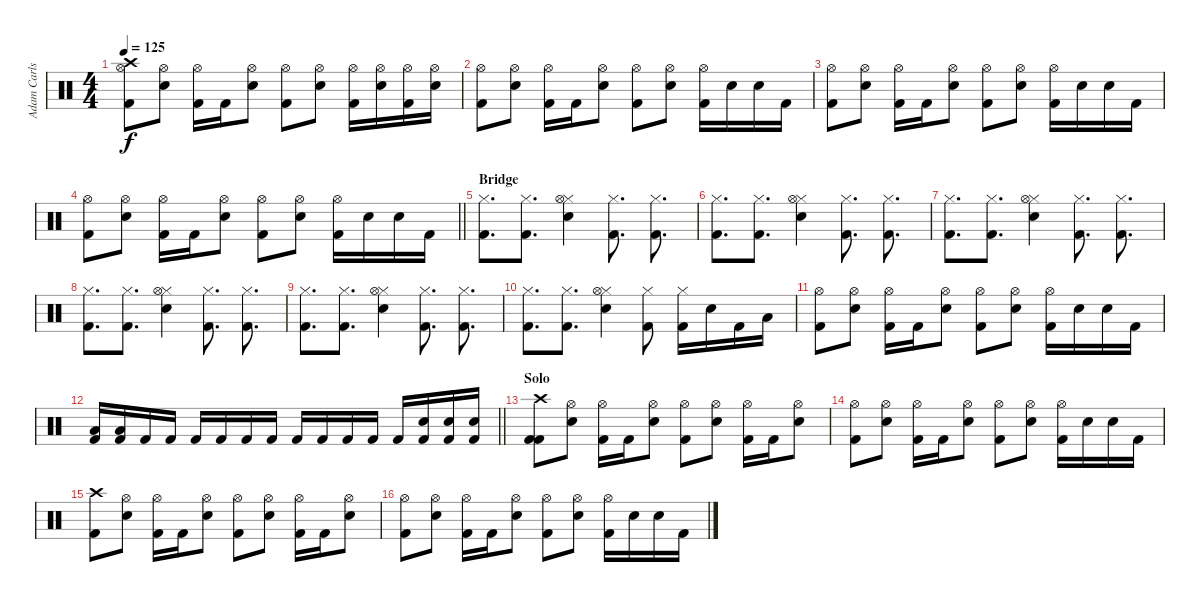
\track ("Adam Carlson" "Adam Carls") {instrument percussion}
\staff {score}
\articulation defaults
\ts (4 4)
\tempo 125
\clef neutral
\ks c
("Crash high (hit)" "Hi-Hat (open)" "Kick (hit) 2").8{dy f} ("Hi-Hat (open)" "Electric Snare (hit)").8 ("Hi-Hat (open)" "Kick (hit) 2").16 "Kick (hit) 2".16 ("Hi-Hat (open)" "Electric Snare (hit)").8 ("Hi-Hat (open)" "Kick (hit) 2").8 ("Hi-Hat (open)" "Electric Snare (hit)").8 ("Hi-Hat (open)" "Kick (hit) 2").16 ("Hi-Hat (open)" "Electric Snare (hit)").16 ("Hi-Hat (open)" "Kick (hit) 2").16 ("Electric Snare (hit)" "Hi-Hat (open)").16 |
("Hi-Hat (open)" "Kick (hit) 2").8 ("Hi-Hat (open)" "Electric Snare (hit)").8 ("Hi-Hat (open)" "Kick (hit) 2").16 "Kick (hit) 2".16 ("Hi-Hat (open)" "Electric Snare (hit)").8 ("Hi-Hat (open)" "Kick (hit) 2").8 ("Hi-Hat (open)" "Electric Snare (hit)").8 ("Hi-Hat (open)" "Kick (hit) 2").16 "Electric Snare (hit)".16 "Electric Snare (hit)".16 "Kick (hit) 2".16 |
("Hi-Hat (open)" "Kick (hit) 2").8 ("Hi-Hat (open)" "Electric Snare (hit)").8 ("Hi-Hat (open)" "Kick (hit) 2").16 "Kick (hit) 2".16 ("Hi-Hat (open)" "Electric Snare (hit)").8 ("Hi-Hat (open)" "Kick (hit) 2").8 ("Hi-Hat (open)" "Electric Snare (hit)").8 ("Hi-Hat (open)" "Kick (hit) 2").16 "Electric Snare (hit)".16 "Electric Snare (hit)".16 "Kick (hit) 2".16 |
\barLineRight lightlight
("Hi-Hat (open)" "Kick (hit) 2").8 ("Hi-Hat (open)" "Electric Snare (hit)").8 ("Hi-Hat (open)" "Kick (hit) 2").16 "Kick (hit) 2".16 ("Hi-Hat (open)" "Electric Snare (hit)").8 ("Hi-Hat (open)" "Kick (hit) 2").8 ("Hi-Hat (open)" "Electric Snare (hit)").8 ("Hi-Hat (open)" "Kick (hit) 2").16 "Electric Snare (hit)".16 "Electric Snare (hit)".16 "Kick (hit) 2".16 |
\section ("" "Bridge")
("Hi-Hat (closed)" "Kick (hit) 2").8{d} ("Hi-Hat (closed)" "Kick (hit) 2").8{d} ("Hi-Hat (closed)" "Hi-Hat (open)" "Electric Snare (hit)").4 ("Hi-Hat (closed)" "Kick (hit) 2").8{d} ("Hi-Hat (closed)" "Kick (hit) 2").8{d} |
("Hi-Hat (closed)" "Kick (hit) 2").8{d} ("Hi-Hat (closed)" "Kick (hit) 2").8{d} ("Hi-Hat (closed)" "Hi-Hat (open)" "Electric Snare (hit)").4 ("Hi-Hat (closed)" "Kick (hit) 2").8{d} ("Hi-Hat (closed)" "Kick (hit) 2").8{d} |
("Hi-Hat (closed)" "Kick (hit) 2").8{d} ("Hi-Hat (closed)" "Kick (hit) 2").8{d} ("Hi-Hat (closed)" "Hi-Hat (open)" "Electric Snare (hit)").4 ("Hi-Hat (closed)" "Kick (hit) 2").8{d} ("Hi-Hat (closed)" "Kick (hit) 2").8{d} |
("Hi-Hat (closed)" "Kick (hit) 2").8{d} ("Hi-Hat (closed)" "Kick (hit) 2").8{d} ("Hi-Hat (closed)" "Hi-Hat (open)" "Electric Snare (hit)").4 ("Hi-Hat (closed)" "Kick (hit) 2").8{d} ("Hi-Hat (closed)" "Kick (hit) 2").8{d} |
("Hi-Hat (closed)" "Kick (hit) 2").8{d} ("Hi-Hat (closed)" "Kick (hit) 2").8{d} ("Hi-Hat (closed)" "Hi-Hat (open)" "Electric Snare (hit)").4 ("Hi-Hat (closed)" "Kick (hit) 2").8{d} ("Hi-Hat (closed)" "Kick (hit) 2").8{d} |
("Hi-Hat (closed)" "Kick (hit) 2").8{d} ("Hi-Hat (closed)" "Kick (hit) 2").8{d} ("Hi-Hat (closed)" "Hi-Hat (open)" "Electric Snare (hit)").4 ("Hi-Hat (closed)" "Kick (hit) 2").8 ("Hi-Hat (closed)" "Kick (hit) 2").16 "Electric Snare (hit)".16 "Kick (hit) 2".16 "Low Floor Tom (hit)".16 |
("Hi-Hat (open)" "Kick (hit) 2").8 ("Hi-Hat (open)" "Electric Snare (hit)").8 ("Hi-Hat (open)" "Kick (hit) 2").16 "Kick (hit) 2".16 ("Hi-Hat (open)" "Electric Snare (hit)").8 ("Hi-Hat (open)" "Kick (hit) 2").8 ("Hi-Hat (open)" "Electric Snare (hit)").8 ("Hi-Hat (open)" "Kick (hit) 2").16 "Electric Snare (hit)".16 "Electric Snare (hit)".16 "Kick (hit) 2".16 |
\barLineRight lightlight
("Low Floor Tom (hit)" "Kick (hit) 2").16 ("Low Floor Tom (hit)" "Kick (hit) 2").16 "Kick (hit) 2".16 "Kick (hit) 2".16 "Kick (hit) 2".16 "Kick (hit) 2".16 "Kick (hit) 2".16 "Kick (hit) 2".16 "Kick (hit) 2".16 "Kick (hit) 2".16 "Kick (hit) 2".16 "Kick (hit) 2".16 "Kick (hit) 2".16 ("Electric Snare (hit)" "Kick (hit) 2").16 ("Electric Snare (hit)" "Kick (hit) 2").16 ("Electric Snare (hit)" "Kick (hit) 2").16 |
\section ("" "Solo")
("Crash high (hit)" "Kick (hit) 2" "Kick (hit) 2").8 ("Hi-Hat (open)" "Electric Snare (hit)").8 ("Hi-Hat (open)" "Kick (hit) 2").16 "Kick (hit) 2".16 ("Hi-Hat (open)" "Electric Snare (hit)").8 ("Hi-Hat (open)" "Kick (hit) 2").8 ("Hi-Hat (open)" "Electric Snare (hit)").8 ("Hi-Hat (open)" "Kick (hit) 2").16 "Kick (hit) 2".16 ("Hi-Hat (open)" "Electric Snare (hit)").8 |
("Hi-Hat (open)" "Kick (hit) 2").8 ("Hi-Hat (open)" "Electric Snare (hit)").8 ("Hi-Hat (open)" "Kick (hit) 2").16 "Kick (hit) 2".16 ("Hi-Hat (open)" "Electric Snare (hit)").8 ("Hi-Hat (open)" "Kick (hit) 2").8 ("Hi-Hat (open)" "Electric Snare (hit)").8 ("Hi-Hat (open)" "Kick (hit) 2").16 "Electric Snare (hit)".16 "Electric Snare (hit)".16 "Kick (hit) 2".16 |
("Crash high (hit)" "Kick (hit) 2").8 ("Hi-Hat (open)" "Electric Snare (hit)").8 ("Hi-Hat (open)" "Kick (hit) 2").16 "Kick (hit) 2".16 ("Hi-Hat (open)" "Electric Snare (hit)").8 ("Hi-Hat (open)" "Kick (hit) 2").8 ("Hi-Hat (open)" "Electric Snare (hit)").8 ("Hi-Hat (open)" "Kick (hit) 2").16 "Kick (hit) 2".16 ("Hi-Hat (open)" "Electric Snare (hit)").8 |
("Hi-Hat (open)" "Kick (hit) 2").8 ("Hi-Hat (open)" "Electric Snare (hit)").8 ("Hi-Hat (open)" "Kick (hit) 2").16 "Kick (hit) 2".16 ("Hi-Hat (open)" "Electric Snare (hit)").8 ("Hi-Hat (open)" "Kick (hit) 2").8 ("Hi-Hat (open)" "Electric Snare (hit)").8 ("Hi-Hat (open)" "Kick (hit) 2").16 "Electric Snare (hit)".16 "Electric Snare (hit)".16 "Kick (hit) 2".16
